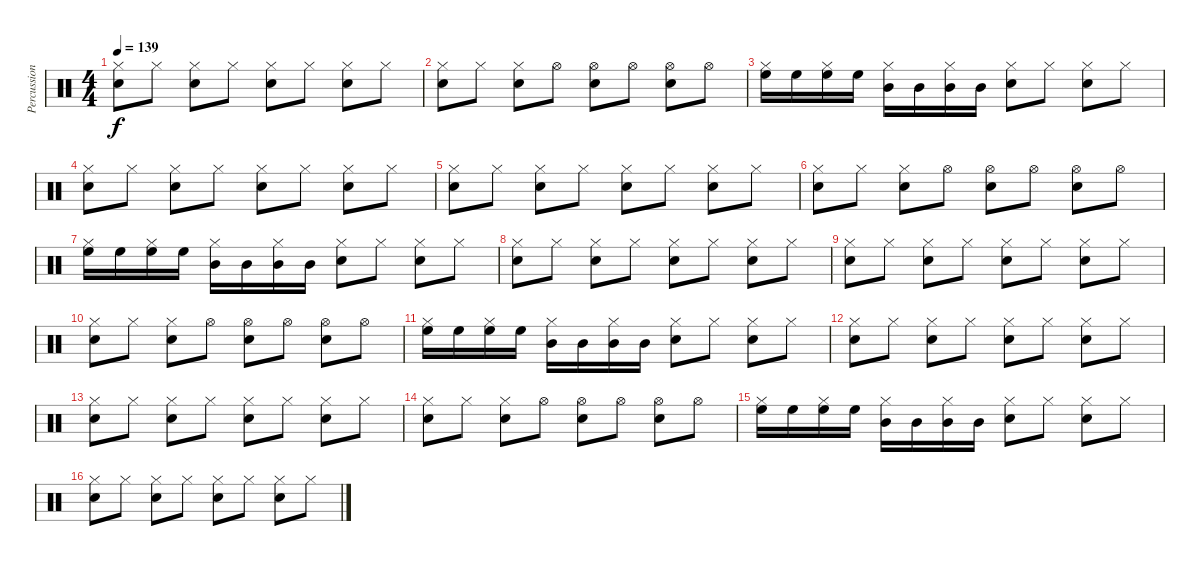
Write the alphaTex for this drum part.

\track ("Percussion" "Percussion") {instrument percussion}
\staff {score}
\articulation defaults
\ts (4 4)
\tempo 139
\clef neutral
\ks c
("Electric Snare (hit)" "Hi-Hat (closed)").8{dy f} "Hi-Hat (closed)".8 ("Electric Snare (hit)" "Hi-Hat (closed)").8 "Hi-Hat (closed)".8 ("Electric Snare (hit)" "Hi-Hat (closed)").8 "Hi-Hat (closed)".8 ("Electric Snare (hit)" "Hi-Hat (closed)").8 "Hi-Hat (closed)".8 |
("Electric Snare (hit)" "Hi-Hat (closed)").8 "Hi-Hat (closed)".8 ("Electric Snare (hit)" "Hi-Hat (closed)").8 "Hi-Hat (open)".8 ("Electric Snare (hit)" "Hi-Hat (open)").8 "Hi-Hat (open)".8 ("Electric Snare (hit)" "Hi-Hat (open)").8 "Hi-Hat (open)".8 |
("High Floor Tom (hit)" "Hi-Hat (closed)").16 "High Floor Tom (hit)".16 ("High Floor Tom (hit)" "Hi-Hat (closed)").16 "High Floor Tom (hit)".16 ("Mid Tom (hit)" "Hi-Hat (closed)").16 "Mid Tom (hit)".16 ("Mid Tom (hit)" "Hi-Hat (closed)").16 "Mid Tom (hit)".16 ("Electric Snare (hit)" "Hi-Hat (closed)").8 "Hi-Hat (closed)".8 ("Electric Snare (hit)" "Hi-Hat (closed)").8 "Hi-Hat (closed)".8 |
("Electric Snare (hit)" "Hi-Hat (closed)").8 "Hi-Hat (closed)".8 ("Electric Snare (hit)" "Hi-Hat (closed)").8 "Hi-Hat (closed)".8 ("Electric Snare (hit)" "Hi-Hat (closed)").8 "Hi-Hat (closed)".8 ("Electric Snare (hit)" "Hi-Hat (closed)").8 "Hi-Hat (closed)".8 |
("Electric Snare (hit)" "Hi-Hat (closed)").8 "Hi-Hat (closed)".8 ("Electric Snare (hit)" "Hi-Hat (closed)").8 "Hi-Hat (closed)".8 ("Electric Snare (hit)" "Hi-Hat (closed)").8 "Hi-Hat (closed)".8 ("Electric Snare (hit)" "Hi-Hat (closed)").8 "Hi-Hat (closed)".8 |
("Electric Snare (hit)" "Hi-Hat (closed)").8 "Hi-Hat (closed)".8 ("Electric Snare (hit)" "Hi-Hat (closed)").8 "Hi-Hat (open)".8 ("Electric Snare (hit)" "Hi-Hat (open)").8 "Hi-Hat (open)".8 ("Electric Snare (hit)" "Hi-Hat (open)").8 "Hi-Hat (open)".8 |
("High Floor Tom (hit)" "Hi-Hat (closed)").16 "High Floor Tom (hit)".16 ("High Floor Tom (hit)" "Hi-Hat (closed)").16 "High Floor Tom (hit)".16 ("Mid Tom (hit)" "Hi-Hat (closed)").16 "Mid Tom (hit)".16 ("Mid Tom (hit)" "Hi-Hat (closed)").16 "Mid Tom (hit)".16 ("Electric Snare (hit)" "Hi-Hat (closed)").8 "Hi-Hat (closed)".8 ("Electric Snare (hit)" "Hi-Hat (closed)").8 "Hi-Hat (closed)".8 |
("Electric Snare (hit)" "Hi-Hat (closed)").8 "Hi-Hat (closed)".8 ("Electric Snare (hit)" "Hi-Hat (closed)").8 "Hi-Hat (closed)".8 ("Electric Snare (hit)" "Hi-Hat (closed)").8 "Hi-Hat (closed)".8 ("Electric Snare (hit)" "Hi-Hat (closed)").8 "Hi-Hat (closed)".8 |
("Electric Snare (hit)" "Hi-Hat (closed)").8 "Hi-Hat (closed)".8 ("Electric Snare (hit)" "Hi-Hat (closed)").8 "Hi-Hat (closed)".8 ("Electric Snare (hit)" "Hi-Hat (closed)").8 "Hi-Hat (closed)".8 ("Electric Snare (hit)" "Hi-Hat (closed)").8 "Hi-Hat (closed)".8 |
("Electric Snare (hit)" "Hi-Hat (closed)").8 "Hi-Hat (closed)".8 ("Electric Snare (hit)" "Hi-Hat (closed)").8 "Hi-Hat (open)".8 ("Electric Snare (hit)" "Hi-Hat (open)").8 "Hi-Hat (open)".8 ("Electric Snare (hit)" "Hi-Hat (open)").8 "Hi-Hat (open)".8 |
("High Floor Tom (hit)" "Hi-Hat (closed)").16 "High Floor Tom (hit)".16 ("High Floor Tom (hit)" "Hi-Hat (closed)").16 "High Floor Tom (hit)".16 ("Mid Tom (hit)" "Hi-Hat (closed)").16 "Mid Tom (hit)".16 ("Mid Tom (hit)" "Hi-Hat (closed)").16 "Mid Tom (hit)".16 ("Electric Snare (hit)" "Hi-Hat (closed)").8 "Hi-Hat (closed)".8 ("Electric Snare (hit)" "Hi-Hat (closed)").8 "Hi-Hat (closed)".8 |
("Electric Snare (hit)" "Hi-Hat (closed)").8 "Hi-Hat (closed)".8 ("Electric Snare (hit)" "Hi-Hat (closed)").8 "Hi-Hat (closed)".8 ("Electric Snare (hit)" "Hi-Hat (closed)").8 "Hi-Hat (closed)".8 ("Electric Snare (hit)" "Hi-Hat (closed)").8 "Hi-Hat (closed)".8 |
("Electric Snare (hit)" "Hi-Hat (closed)").8 "Hi-Hat (closed)".8 ("Electric Snare (hit)" "Hi-Hat (closed)").8 "Hi-Hat (closed)".8 ("Electric Snare (hit)" "Hi-Hat (closed)").8 "Hi-Hat (closed)".8 ("Electric Snare (hit)" "Hi-Hat (closed)").8 "Hi-Hat (closed)".8 |
("Electric Snare (hit)" "Hi-Hat (closed)").8 "Hi-Hat (closed)".8 ("Electric Snare (hit)" "Hi-Hat (closed)").8 "Hi-Hat (open)".8 ("Electric Snare (hit)" "Hi-Hat (open)").8 "Hi-Hat (open)".8 ("Electric Snare (hit)" "Hi-Hat (open)").8 "Hi-Hat (open)".8 |
("High Floor Tom (hit)" "Hi-Hat (closed)").16 "High Floor Tom (hit)".16 ("High Floor Tom (hit)" "Hi-Hat (closed)").16 "High Floor Tom (hit)".16 ("Mid Tom (hit)" "Hi-Hat (closed)").16 "Mid Tom (hit)".16 ("Mid Tom (hit)" "Hi-Hat (closed)").16 "Mid Tom (hit)".16 ("Electric Snare (hit)" "Hi-Hat (closed)").8 "Hi-Hat (closed)".8 ("Electric Snare (hit)" "Hi-Hat (closed)").8 "Hi-Hat (closed)".8 |
("Electric Snare (hit)" "Hi-Hat (closed)").8 "Hi-Hat (closed)".8 ("Electric Snare (hit)" "Hi-Hat (closed)").8 "Hi-Hat (closed)".8 ("Electric Snare (hit)" "Hi-Hat (closed)").8 "Hi-Hat (closed)".8 ("Electric Snare (hit)" "Hi-Hat (closed)").8 "Hi-Hat (closed)".8
